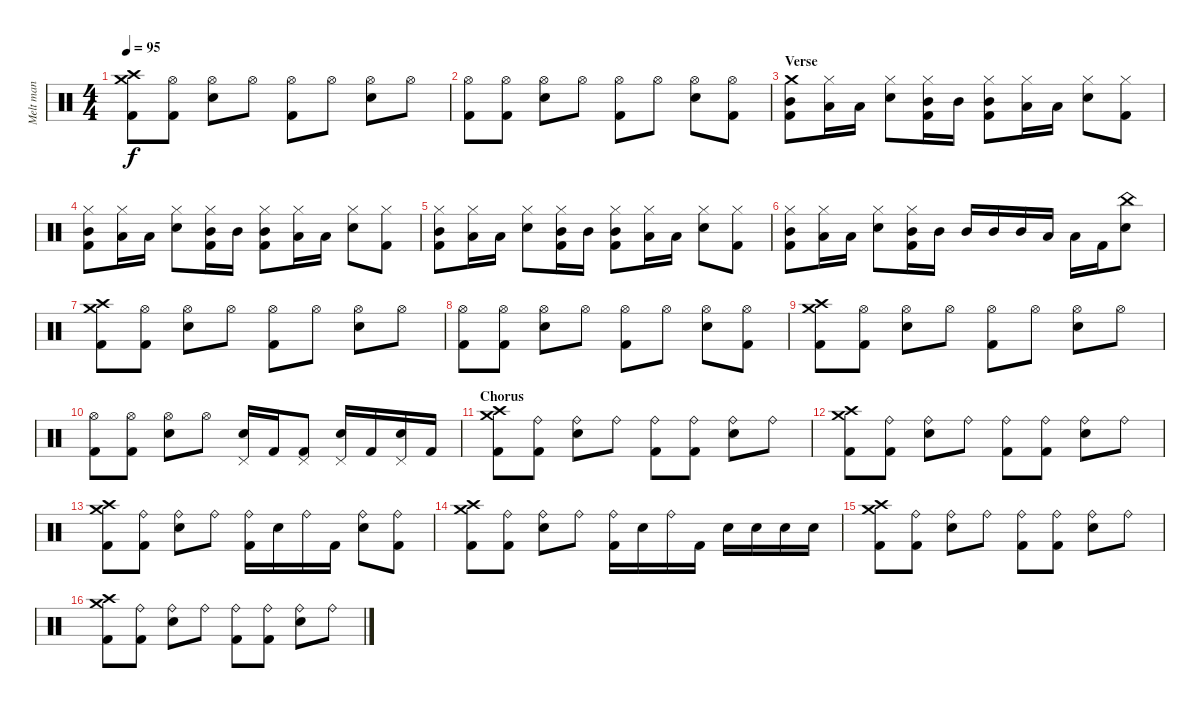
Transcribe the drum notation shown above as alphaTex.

\track ("Melt man" "Melt man") {instrument percussion}
\staff {score}
\articulation defaults
\ts (4 4)
\tempo 95
\clef neutral
\ks c
("Crash medium (hit)" "Crash high (hit)" "Kick (hit) 2").8{dy f} ("Hi-Hat (open)" "Kick (hit) 2").8 ("Hi-Hat (open)" "Snare (hit) 2").8 "Hi-Hat (open)".8 ("Hi-Hat (open)" "Kick (hit) 2").8 "Hi-Hat (open)".8 ("Hi-Hat (open)" "Snare (hit) 2").8 "Hi-Hat (open)".8 |
("Hi-Hat (open)" "Kick (hit) 2").8 ("Hi-Hat (open)" "Kick (hit) 2").8 ("Hi-Hat (open)" "Snare (hit) 2").8 "Hi-Hat (open)".8 ("Hi-Hat (open)" "Kick (hit) 2").8 "Hi-Hat (open)".8 ("Hi-Hat (open)" "Snare (hit) 2").8 ("Hi-Hat (open)" "Kick (hit) 2").8 |
\section ("" "Verse")
("Crash medium (hit)" "Mid Tom (hit)" "Kick (hit) 2").8 ("Hi-Hat (closed)" "Low Tom (hit)").16 "Low Tom (hit)".16 ("Hi-Hat (closed)" "Snare (hit) 2").8 ("Hi-Hat (closed)" "Mid Tom (hit)" "Kick (hit) 2").16 "Mid Tom (hit)".16 ("Hi-Hat (closed)" "Mid Tom (hit)" "Kick (hit) 2").8 ("Hi-Hat (closed)" "Low Tom (hit)").16 "Low Tom (hit)".16 ("Hi-Hat (closed)" "Snare (hit) 2").8 ("Hi-Hat (closed)" "Kick (hit) 2").8 |
("Hi-Hat (closed)" "Mid Tom (hit)" "Kick (hit) 2").8 ("Hi-Hat (closed)" "Low Tom (hit)").16 "Low Tom (hit)".16 ("Hi-Hat (closed)" "Snare (hit) 2").8 ("Hi-Hat (closed)" "Mid Tom (hit)" "Kick (hit) 2").16 "Mid Tom (hit)".16 ("Hi-Hat (closed)" "Mid Tom (hit)" "Kick (hit) 2").8 ("Hi-Hat (closed)" "Low Tom (hit)").16 "Low Tom (hit)".16 ("Hi-Hat (closed)" "Snare (hit) 2").8 ("Hi-Hat (closed)" "Kick (hit) 2").8 |
("Hi-Hat (closed)" "Mid Tom (hit)" "Kick (hit) 2").8 ("Hi-Hat (closed)" "Low Tom (hit)").16 "Low Tom (hit)".16 ("Hi-Hat (closed)" "Snare (hit) 2").8 ("Hi-Hat (closed)" "Mid Tom (hit)" "Kick (hit) 2").16 "Mid Tom (hit)".16 ("Hi-Hat (closed)" "Mid Tom (hit)" "Kick (hit) 2").8 ("Hi-Hat (closed)" "Low Tom (hit)").16 "Low Tom (hit)".16 ("Hi-Hat (closed)" "Snare (hit) 2").8 ("Hi-Hat (closed)" "Kick (hit) 2").8 |
("Hi-Hat (closed)" "Mid Tom (hit)" "Kick (hit) 2").8 ("Hi-Hat (closed)" "Low Tom (hit)").16 "Low Tom (hit)".16 ("Hi-Hat (closed)" "Snare (hit) 2").8 ("Hi-Hat (closed)" "Mid Tom (hit)" "Kick (hit) 2").16 "Mid Tom (hit)".16 "Mid Tom (hit)".16 "Mid Tom (hit)".16 "Mid Tom (hit)".16 "Low Tom (hit)".16 "Low Tom (hit)".16 "Kick (hit) 2".16 ("China (hit)" "Snare (hit) 2").8 |
("Crash medium (hit)" "Crash high (hit)" "Kick (hit) 2").8 ("Hi-Hat (open)" "Kick (hit) 2").8 ("Hi-Hat (open)" "Snare (hit) 2").8 "Hi-Hat (open)".8 ("Hi-Hat (open)" "Kick (hit) 2").8 "Hi-Hat (open)".8 ("Hi-Hat (open)" "Snare (hit) 2").8 "Hi-Hat (open)".8 |
("Hi-Hat (open)" "Kick (hit) 2").8 ("Hi-Hat (open)" "Kick (hit) 2").8 ("Hi-Hat (open)" "Snare (hit) 2").8 "Hi-Hat (open)".8 ("Hi-Hat (open)" "Kick (hit) 2").8 "Hi-Hat (open)".8 ("Hi-Hat (open)" "Snare (hit) 2").8 ("Hi-Hat (open)" "Kick (hit) 2").8 |
("Crash medium (hit)" "Crash high (hit)" "Kick (hit) 2").8 ("Hi-Hat (open)" "Kick (hit) 2").8 ("Hi-Hat (open)" "Snare (hit) 2").8 "Hi-Hat (open)".8 ("Hi-Hat (open)" "Kick (hit) 2").8 "Hi-Hat (open)".8 ("Hi-Hat (open)" "Snare (hit) 2").8 "Hi-Hat (open)".8 |
("Hi-Hat (open)" "Kick (hit) 2").8 ("Hi-Hat (open)" "Kick (hit) 2").8 ("Hi-Hat (open)" "Snare (hit) 2").8 "Hi-Hat (open)".8 ("Pedal Hi-Hat (hit)" "Snare (hit) 2").16 "Kick (hit) 2".16 ("Pedal Hi-Hat (hit)" "Kick (hit) 2").8 ("Pedal Hi-Hat (hit)" "Snare (hit) 2").16 "Kick (hit) 2".16 ("Pedal Hi-Hat (hit)" "Snare (hit) 2").16 "Kick (hit) 2".16 |
\section ("" "Chorus")
("Crash medium (hit)" "Crash high (hit)" "Kick (hit) 2").8 ("Ride (bell)" "Kick (hit) 2").8 ("Ride (bell)" "Snare (hit) 2").8 "Ride (bell)".8 ("Ride (bell)" "Kick (hit) 2").8 ("Ride (bell)" "Kick (hit) 2").8 ("Ride (bell)" "Snare (hit) 2").8 "Ride (bell)".8 |
("Crash medium (hit)" "Crash high (hit)" "Kick (hit) 2").8 ("Ride (bell)" "Kick (hit) 2").8 ("Ride (bell)" "Snare (hit) 2").8 "Ride (bell)".8 ("Ride (bell)" "Kick (hit) 2").8 ("Ride (bell)" "Kick (hit) 2").8 ("Ride (bell)" "Snare (hit) 2").8 "Ride (bell)".8 |
("Crash medium (hit)" "Crash high (hit)" "Kick (hit) 2").8 ("Ride (bell)" "Kick (hit) 2").8 ("Ride (bell)" "Snare (hit) 2").8 "Ride (bell)".8 ("Ride (bell)" "Kick (hit) 2").16 "Snare (hit) 2".16 "Ride (bell)".16 "Kick (hit) 2".16 ("Ride (bell)" "Snare (hit) 2").8 ("Ride (bell)" "Kick (hit) 2").8 |
("Crash medium (hit)" "Crash high (hit)" "Kick (hit) 2").8 ("Ride (bell)" "Kick (hit) 2").8 ("Ride (bell)" "Snare (hit) 2").8 "Ride (bell)".8 ("Ride (bell)" "Kick (hit) 2").16 "Snare (hit) 2".16 "Ride (bell)".16 "Kick (hit) 2".16 "Snare (hit) 2".16 "Snare (hit) 2".16 "Snare (hit) 2".16 "Snare (hit) 2".16 |
("Crash medium (hit)" "Crash high (hit)" "Kick (hit) 2").8 ("Ride (bell)" "Kick (hit) 2").8 ("Ride (bell)" "Snare (hit) 2").8 "Ride (bell)".8 ("Ride (bell)" "Kick (hit) 2").8 ("Ride (bell)" "Kick (hit) 2").8 ("Ride (bell)" "Snare (hit) 2").8 "Ride (bell)".8 |
("Crash medium (hit)" "Crash high (hit)" "Kick (hit) 2").8 ("Ride (bell)" "Kick (hit) 2").8 ("Ride (bell)" "Snare (hit) 2").8 "Ride (bell)".8 ("Ride (bell)" "Kick (hit) 2").8 ("Ride (bell)" "Kick (hit) 2").8 ("Ride (bell)" "Snare (hit) 2").8 "Ride (bell)".8
